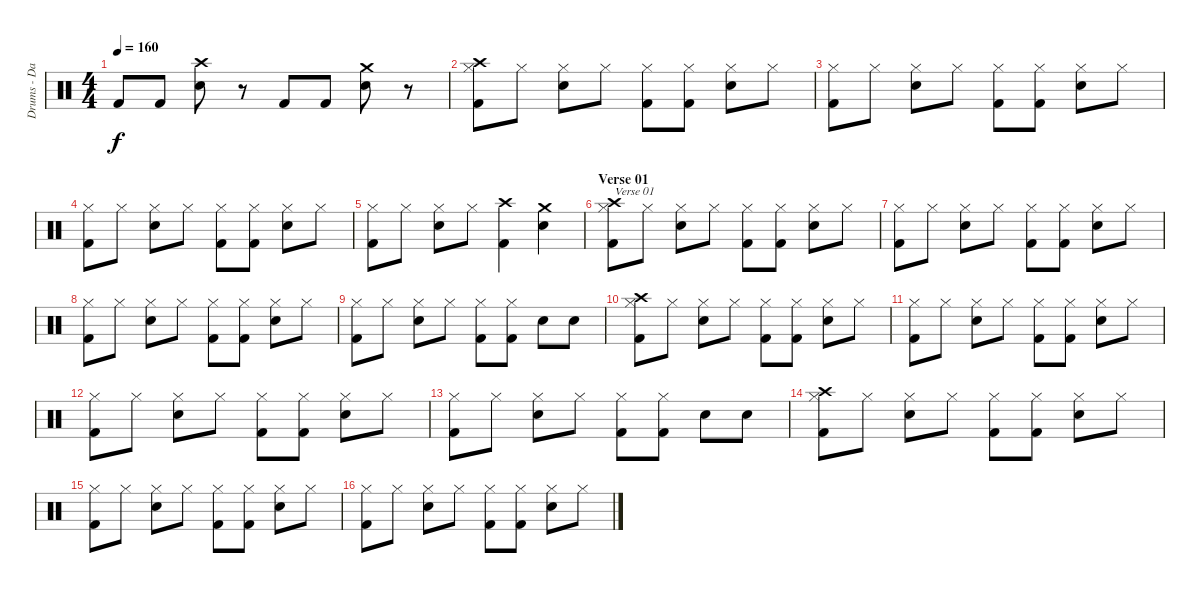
\track ("Drums - Daniel Zimmermann" "Drums - Da") {instrument percussion}
\staff {score}
\articulation defaults
\ts (4 4)
\tempo 160
\clef neutral
\ks c "Kick (hit) 2".8{dy f} "Kick (hit) 2".8
("Snare (hit) 2" "Crash high (hit)").8 r.8 "Kick (hit) 2".8 "Kick (hit) 2".8 ("Snare (hit) 2" "Crash medium (hit)").8 r.8 |
("Hi-Hat (closed)" "Kick (hit) 2" "Crash high (hit)").8 "Hi-Hat (closed)".8 ("Hi-Hat (closed)" "Snare (hit) 2").8 "Hi-Hat (closed)".8 ("Hi-Hat (closed)" "Kick (hit) 2").8 ("Hi-Hat (closed)" "Kick (hit) 2").8 ("Hi-Hat (closed)" "Snare (hit) 2").8 "Hi-Hat (closed)".8 |
("Hi-Hat (closed)" "Kick (hit) 2").8 "Hi-Hat (closed)".8 ("Hi-Hat (closed)" "Snare (hit) 2").8 "Hi-Hat (closed)".8 ("Hi-Hat (closed)" "Kick (hit) 2").8 ("Hi-Hat (closed)" "Kick (hit) 2").8 ("Hi-Hat (closed)" "Snare (hit) 2").8 "Hi-Hat (closed)".8 |
("Hi-Hat (closed)" "Kick (hit) 2").8 "Hi-Hat (closed)".8 ("Hi-Hat (closed)" "Snare (hit) 2").8 "Hi-Hat (closed)".8 ("Hi-Hat (closed)" "Kick (hit) 2").8 ("Hi-Hat (closed)" "Kick (hit) 2").8 ("Hi-Hat (closed)" "Snare (hit) 2").8 "Hi-Hat (closed)".8 |
("Hi-Hat (closed)" "Kick (hit) 2").8 "Hi-Hat (closed)".8 ("Hi-Hat (closed)" "Snare (hit) 2").8 "Hi-Hat (closed)".8 ("Kick (hit) 2" "Crash high (hit)").4 ("Snare (hit) 2" "Crash medium (hit)").4 |
\section ("" "Verse 01")
("Hi-Hat (closed)" "Kick (hit) 2" "Crash high (hit)").8{txt "Verse 01"} "Hi-Hat (closed)".8 ("Hi-Hat (closed)" "Snare (hit) 2").8 "Hi-Hat (closed)".8 ("Hi-Hat (closed)" "Kick (hit) 2").8 ("Hi-Hat (closed)" "Kick (hit) 2").8 ("Hi-Hat (closed)" "Snare (hit) 2").8 "Hi-Hat (closed)".8 |
("Hi-Hat (closed)" "Kick (hit) 2").8 "Hi-Hat (closed)".8 ("Hi-Hat (closed)" "Snare (hit) 2").8 "Hi-Hat (closed)".8 ("Hi-Hat (closed)" "Kick (hit) 2").8 ("Hi-Hat (closed)" "Kick (hit) 2").8 ("Hi-Hat (closed)" "Snare (hit) 2").8 "Hi-Hat (closed)".8 |
("Hi-Hat (closed)" "Kick (hit) 2").8 "Hi-Hat (closed)".8 ("Hi-Hat (closed)" "Snare (hit) 2").8 "Hi-Hat (closed)".8 ("Hi-Hat (closed)" "Kick (hit) 2").8 ("Hi-Hat (closed)" "Kick (hit) 2").8 ("Hi-Hat (closed)" "Snare (hit) 2").8 "Hi-Hat (closed)".8 |
("Hi-Hat (closed)" "Kick (hit) 2").8 "Hi-Hat (closed)".8 ("Hi-Hat (closed)" "Snare (hit) 2").8 "Hi-Hat (closed)".8 ("Hi-Hat (closed)" "Kick (hit) 2").8 ("Hi-Hat (closed)" "Kick (hit) 2").8 "Snare (hit) 2".8 "Snare (hit) 2".8 |
("Hi-Hat (closed)" "Kick (hit) 2" "Crash high (hit)").8 "Hi-Hat (closed)".8 ("Hi-Hat (closed)" "Snare (hit) 2").8 "Hi-Hat (closed)".8 ("Hi-Hat (closed)" "Kick (hit) 2").8 ("Hi-Hat (closed)" "Kick (hit) 2").8 ("Hi-Hat (closed)" "Snare (hit) 2").8 "Hi-Hat (closed)".8 |
("Hi-Hat (closed)" "Kick (hit) 2").8 "Hi-Hat (closed)".8 ("Hi-Hat (closed)" "Snare (hit) 2").8 "Hi-Hat (closed)".8 ("Hi-Hat (closed)" "Kick (hit) 2").8 ("Hi-Hat (closed)" "Kick (hit) 2").8 ("Hi-Hat (closed)" "Snare (hit) 2").8 "Hi-Hat (closed)".8 |
("Hi-Hat (closed)" "Kick (hit) 2").8 "Hi-Hat (closed)".8 ("Hi-Hat (closed)" "Snare (hit) 2").8 "Hi-Hat (closed)".8 ("Hi-Hat (closed)" "Kick (hit) 2").8 ("Hi-Hat (closed)" "Kick (hit) 2").8 ("Hi-Hat (closed)" "Snare (hit) 2").8 "Hi-Hat (closed)".8 |
("Hi-Hat (closed)" "Kick (hit) 2").8 "Hi-Hat (closed)".8 ("Hi-Hat (closed)" "Snare (hit) 2").8 "Hi-Hat (closed)".8 ("Hi-Hat (closed)" "Kick (hit) 2").8 ("Hi-Hat (closed)" "Kick (hit) 2").8 "Snare (hit) 2".8 "Snare (hit) 2".8 |
("Hi-Hat (closed)" "Kick (hit) 2" "Crash high (hit)").8 "Hi-Hat (closed)".8 ("Hi-Hat (closed)" "Snare (hit) 2").8 "Hi-Hat (closed)".8 ("Hi-Hat (closed)" "Kick (hit) 2").8 ("Hi-Hat (closed)" "Kick (hit) 2").8 ("Hi-Hat (closed)" "Snare (hit) 2").8 "Hi-Hat (closed)".8 |
("Hi-Hat (closed)" "Kick (hit) 2").8 "Hi-Hat (closed)".8 ("Hi-Hat (closed)" "Snare (hit) 2").8 "Hi-Hat (closed)".8 ("Hi-Hat (closed)" "Kick (hit) 2").8 ("Hi-Hat (closed)" "Kick (hit) 2").8 ("Hi-Hat (closed)" "Snare (hit) 2").8 "Hi-Hat (closed)".8 |
("Hi-Hat (closed)" "Kick (hit) 2").8 "Hi-Hat (closed)".8 ("Hi-Hat (closed)" "Snare (hit) 2").8 "Hi-Hat (closed)".8 ("Hi-Hat (closed)" "Kick (hit) 2").8 ("Hi-Hat (closed)" "Kick (hit) 2").8 ("Hi-Hat (closed)" "Snare (hit) 2").8 "Hi-Hat (closed)".8
